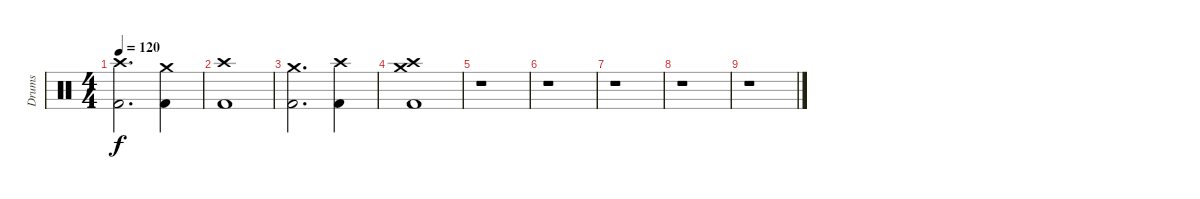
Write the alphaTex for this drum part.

\track ("Drums" "Drums") {instrument percussion}
\staff {score}
\articulation defaults
\ts (4 4)
\tempo 120
\clef neutral
\ks c
("Crash high (hit)" "Kick (hit) 2").2{d dy f} ("Crash medium (hit)" "Kick (hit) 2").4 |
("Crash high (hit)" "Kick (hit) 2").1 |
("Crash medium (hit)" "Kick (hit) 2").2{d} ("Crash high (hit)" "Kick (hit) 2").4 |
("Crash medium (hit)" "Crash high (hit)" "Kick (hit) 2").1 |
r.1 |
r.1 |
r.1 |
r.1 |
r.1
